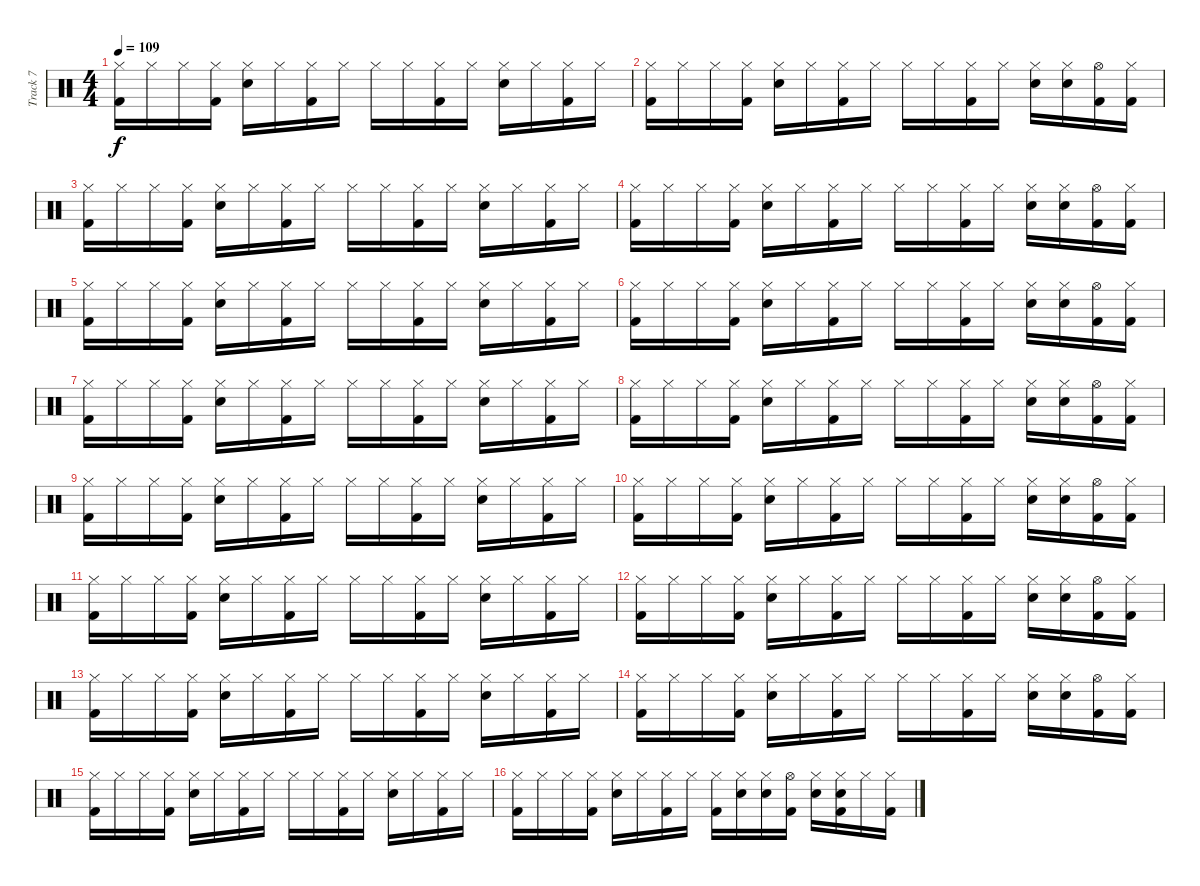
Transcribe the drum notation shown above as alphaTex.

\track ("Track 7" "Track 7") {instrument percussion}
\staff {score}
\articulation defaults
\ts (4 4)
\tempo 109
\clef neutral
\ks c
("Hi-Hat (closed)" "Kick (hit) 2").16{dy f} "Hi-Hat (closed)".16 "Hi-Hat (closed)".16 ("Hi-Hat (closed)" "Kick (hit) 2").16 ("Hi-Hat (closed)" "Snare (hit) 2").16 "Hi-Hat (closed)".16 ("Hi-Hat (closed)" "Kick (hit) 2").16 "Hi-Hat (closed)".16 "Hi-Hat (closed)".16 "Hi-Hat (closed)".16 ("Hi-Hat (closed)" "Kick (hit) 2").16 "Hi-Hat (closed)".16 ("Hi-Hat (closed)" "Snare (hit) 2").16 "Hi-Hat (closed)".16 ("Hi-Hat (closed)" "Kick (hit) 2").16 "Hi-Hat (closed)".16 |
("Hi-Hat (closed)" "Kick (hit) 2").16 "Hi-Hat (closed)".16 "Hi-Hat (closed)".16 ("Hi-Hat (closed)" "Kick (hit) 2").16 ("Hi-Hat (closed)" "Snare (hit) 2").16 "Hi-Hat (closed)".16 ("Hi-Hat (closed)" "Kick (hit) 2").16 "Hi-Hat (closed)".16 "Hi-Hat (closed)".16 "Hi-Hat (closed)".16 ("Hi-Hat (closed)" "Kick (hit) 2").16 "Hi-Hat (closed)".16 ("Hi-Hat (closed)" "Snare (hit) 2").16 ("Hi-Hat (closed)" "Snare (hit) 2").16 ("Hi-Hat (open)" "Kick (hit) 2").16 ("Hi-Hat (closed)" "Kick (hit) 2").16 |
("Hi-Hat (closed)" "Kick (hit) 2").16 "Hi-Hat (closed)".16 "Hi-Hat (closed)".16 ("Hi-Hat (closed)" "Kick (hit) 2").16 ("Hi-Hat (closed)" "Snare (hit) 2").16 "Hi-Hat (closed)".16 ("Hi-Hat (closed)" "Kick (hit) 2").16 "Hi-Hat (closed)".16 "Hi-Hat (closed)".16 "Hi-Hat (closed)".16 ("Hi-Hat (closed)" "Kick (hit) 2").16 "Hi-Hat (closed)".16 ("Hi-Hat (closed)" "Snare (hit) 2").16 "Hi-Hat (closed)".16 ("Hi-Hat (closed)" "Kick (hit) 2").16 "Hi-Hat (closed)".16 |
("Hi-Hat (closed)" "Kick (hit) 2").16 "Hi-Hat (closed)".16 "Hi-Hat (closed)".16 ("Hi-Hat (closed)" "Kick (hit) 2").16 ("Hi-Hat (closed)" "Snare (hit) 2").16 "Hi-Hat (closed)".16 ("Hi-Hat (closed)" "Kick (hit) 2").16 "Hi-Hat (closed)".16 "Hi-Hat (closed)".16 "Hi-Hat (closed)".16 ("Hi-Hat (closed)" "Kick (hit) 2").16 "Hi-Hat (closed)".16 ("Hi-Hat (closed)" "Snare (hit) 2").16 ("Hi-Hat (closed)" "Snare (hit) 2").16 ("Hi-Hat (open)" "Kick (hit) 2").16 ("Hi-Hat (closed)" "Kick (hit) 2").16 |
("Hi-Hat (closed)" "Kick (hit) 2").16 "Hi-Hat (closed)".16 "Hi-Hat (closed)".16 ("Hi-Hat (closed)" "Kick (hit) 2").16 ("Hi-Hat (closed)" "Snare (hit) 2").16 "Hi-Hat (closed)".16 ("Hi-Hat (closed)" "Kick (hit) 2").16 "Hi-Hat (closed)".16 "Hi-Hat (closed)".16 "Hi-Hat (closed)".16 ("Hi-Hat (closed)" "Kick (hit) 2").16 "Hi-Hat (closed)".16 ("Hi-Hat (closed)" "Snare (hit) 2").16 "Hi-Hat (closed)".16 ("Hi-Hat (closed)" "Kick (hit) 2").16 "Hi-Hat (closed)".16 |
("Hi-Hat (closed)" "Kick (hit) 2").16 "Hi-Hat (closed)".16 "Hi-Hat (closed)".16 ("Hi-Hat (closed)" "Kick (hit) 2").16 ("Hi-Hat (closed)" "Snare (hit) 2").16 "Hi-Hat (closed)".16 ("Hi-Hat (closed)" "Kick (hit) 2").16 "Hi-Hat (closed)".16 "Hi-Hat (closed)".16 "Hi-Hat (closed)".16 ("Hi-Hat (closed)" "Kick (hit) 2").16 "Hi-Hat (closed)".16 ("Hi-Hat (closed)" "Snare (hit) 2").16 ("Hi-Hat (closed)" "Snare (hit) 2").16 ("Hi-Hat (open)" "Kick (hit) 2").16 ("Hi-Hat (closed)" "Kick (hit) 2").16 |
("Hi-Hat (closed)" "Kick (hit) 2").16 "Hi-Hat (closed)".16 "Hi-Hat (closed)".16 ("Hi-Hat (closed)" "Kick (hit) 2").16 ("Hi-Hat (closed)" "Snare (hit) 2").16 "Hi-Hat (closed)".16 ("Hi-Hat (closed)" "Kick (hit) 2").16 "Hi-Hat (closed)".16 "Hi-Hat (closed)".16 "Hi-Hat (closed)".16 ("Hi-Hat (closed)" "Kick (hit) 2").16 "Hi-Hat (closed)".16 ("Hi-Hat (closed)" "Snare (hit) 2").16 "Hi-Hat (closed)".16 ("Hi-Hat (closed)" "Kick (hit) 2").16 "Hi-Hat (closed)".16 |
("Hi-Hat (closed)" "Kick (hit) 2").16 "Hi-Hat (closed)".16 "Hi-Hat (closed)".16 ("Hi-Hat (closed)" "Kick (hit) 2").16 ("Hi-Hat (closed)" "Snare (hit) 2").16 "Hi-Hat (closed)".16 ("Hi-Hat (closed)" "Kick (hit) 2").16 "Hi-Hat (closed)".16 "Hi-Hat (closed)".16 "Hi-Hat (closed)".16 ("Hi-Hat (closed)" "Kick (hit) 2").16 "Hi-Hat (closed)".16 ("Hi-Hat (closed)" "Snare (hit) 2").16 ("Hi-Hat (closed)" "Snare (hit) 2").16 ("Hi-Hat (open)" "Kick (hit) 2").16 ("Hi-Hat (closed)" "Kick (hit) 2").16 |
("Hi-Hat (closed)" "Kick (hit) 2").16 "Hi-Hat (closed)".16 "Hi-Hat (closed)".16 ("Hi-Hat (closed)" "Kick (hit) 2").16 ("Hi-Hat (closed)" "Snare (hit) 2").16 "Hi-Hat (closed)".16 ("Hi-Hat (closed)" "Kick (hit) 2").16 "Hi-Hat (closed)".16 "Hi-Hat (closed)".16 "Hi-Hat (closed)".16 ("Hi-Hat (closed)" "Kick (hit) 2").16 "Hi-Hat (closed)".16 ("Hi-Hat (closed)" "Snare (hit) 2").16 "Hi-Hat (closed)".16 ("Hi-Hat (closed)" "Kick (hit) 2").16 "Hi-Hat (closed)".16 |
("Hi-Hat (closed)" "Kick (hit) 2").16 "Hi-Hat (closed)".16 "Hi-Hat (closed)".16 ("Hi-Hat (closed)" "Kick (hit) 2").16 ("Hi-Hat (closed)" "Snare (hit) 2").16 "Hi-Hat (closed)".16 ("Hi-Hat (closed)" "Kick (hit) 2").16 "Hi-Hat (closed)".16 "Hi-Hat (closed)".16 "Hi-Hat (closed)".16 ("Hi-Hat (closed)" "Kick (hit) 2").16 "Hi-Hat (closed)".16 ("Hi-Hat (closed)" "Snare (hit) 2").16 ("Hi-Hat (closed)" "Snare (hit) 2").16 ("Hi-Hat (open)" "Kick (hit) 2").16 ("Hi-Hat (closed)" "Kick (hit) 2").16 |
("Hi-Hat (closed)" "Kick (hit) 2").16 "Hi-Hat (closed)".16 "Hi-Hat (closed)".16 ("Hi-Hat (closed)" "Kick (hit) 2").16 ("Hi-Hat (closed)" "Snare (hit) 2").16 "Hi-Hat (closed)".16 ("Hi-Hat (closed)" "Kick (hit) 2").16 "Hi-Hat (closed)".16 "Hi-Hat (closed)".16 "Hi-Hat (closed)".16 ("Hi-Hat (closed)" "Kick (hit) 2").16 "Hi-Hat (closed)".16 ("Hi-Hat (closed)" "Snare (hit) 2").16 "Hi-Hat (closed)".16 ("Hi-Hat (closed)" "Kick (hit) 2").16 "Hi-Hat (closed)".16 |
("Hi-Hat (closed)" "Kick (hit) 2").16 "Hi-Hat (closed)".16 "Hi-Hat (closed)".16 ("Hi-Hat (closed)" "Kick (hit) 2").16 ("Hi-Hat (closed)" "Snare (hit) 2").16 "Hi-Hat (closed)".16 ("Hi-Hat (closed)" "Kick (hit) 2").16 "Hi-Hat (closed)".16 "Hi-Hat (closed)".16 "Hi-Hat (closed)".16 ("Hi-Hat (closed)" "Kick (hit) 2").16 "Hi-Hat (closed)".16 ("Hi-Hat (closed)" "Snare (hit) 2").16 ("Hi-Hat (closed)" "Snare (hit) 2").16 ("Hi-Hat (open)" "Kick (hit) 2").16 ("Hi-Hat (closed)" "Kick (hit) 2").16 |
("Hi-Hat (closed)" "Kick (hit) 2").16 "Hi-Hat (closed)".16 "Hi-Hat (closed)".16 ("Hi-Hat (closed)" "Kick (hit) 2").16 ("Hi-Hat (closed)" "Snare (hit) 2").16 "Hi-Hat (closed)".16 ("Hi-Hat (closed)" "Kick (hit) 2").16 "Hi-Hat (closed)".16 "Hi-Hat (closed)".16 "Hi-Hat (closed)".16 ("Hi-Hat (closed)" "Kick (hit) 2").16 "Hi-Hat (closed)".16 ("Hi-Hat (closed)" "Snare (hit) 2").16 "Hi-Hat (closed)".16 ("Hi-Hat (closed)" "Kick (hit) 2").16 "Hi-Hat (closed)".16 |
("Hi-Hat (closed)" "Kick (hit) 2").16 "Hi-Hat (closed)".16 "Hi-Hat (closed)".16 ("Hi-Hat (closed)" "Kick (hit) 2").16 ("Hi-Hat (closed)" "Snare (hit) 2").16 "Hi-Hat (closed)".16 ("Hi-Hat (closed)" "Kick (hit) 2").16 "Hi-Hat (closed)".16 "Hi-Hat (closed)".16 "Hi-Hat (closed)".16 ("Hi-Hat (closed)" "Kick (hit) 2").16 "Hi-Hat (closed)".16 ("Hi-Hat (closed)" "Snare (hit) 2").16 ("Hi-Hat (closed)" "Snare (hit) 2").16 ("Hi-Hat (open)" "Kick (hit) 2").16 ("Hi-Hat (closed)" "Kick (hit) 2").16 |
("Hi-Hat (closed)" "Kick (hit) 2").16 "Hi-Hat (closed)".16 "Hi-Hat (closed)".16 ("Hi-Hat (closed)" "Kick (hit) 2").16 ("Hi-Hat (closed)" "Snare (hit) 2").16 "Hi-Hat (closed)".16 ("Hi-Hat (closed)" "Kick (hit) 2").16 "Hi-Hat (closed)".16 "Hi-Hat (closed)".16 "Hi-Hat (closed)".16 ("Hi-Hat (closed)" "Kick (hit) 2").16 "Hi-Hat (closed)".16 ("Hi-Hat (closed)" "Snare (hit) 2").16 "Hi-Hat (closed)".16 ("Hi-Hat (closed)" "Kick (hit) 2").16 "Hi-Hat (closed)".16 |
("Hi-Hat (closed)" "Kick (hit) 2").16 "Hi-Hat (closed)".16 "Hi-Hat (closed)".16 ("Hi-Hat (closed)" "Kick (hit) 2").16 ("Hi-Hat (closed)" "Snare (hit) 2").16 "Hi-Hat (closed)".16 ("Hi-Hat (closed)" "Kick (hit) 2").16 "Hi-Hat (closed)".16 ("Hi-Hat (closed)" "Kick (hit) 2").16 ("Hi-Hat (closed)" "Snare (hit) 2").16 ("Hi-Hat (closed)" "Snare (hit) 2").16 ("Hi-Hat (open)" "Kick (hit) 2").16 ("Hi-Hat (closed)" "Snare (hit) 2").16 ("Hi-Hat (closed)" "Snare (hit) 2" "Kick (hit) 2").16 "Hi-Hat (closed)".16 ("Hi-Hat (closed)" "Kick (hit) 2").16
